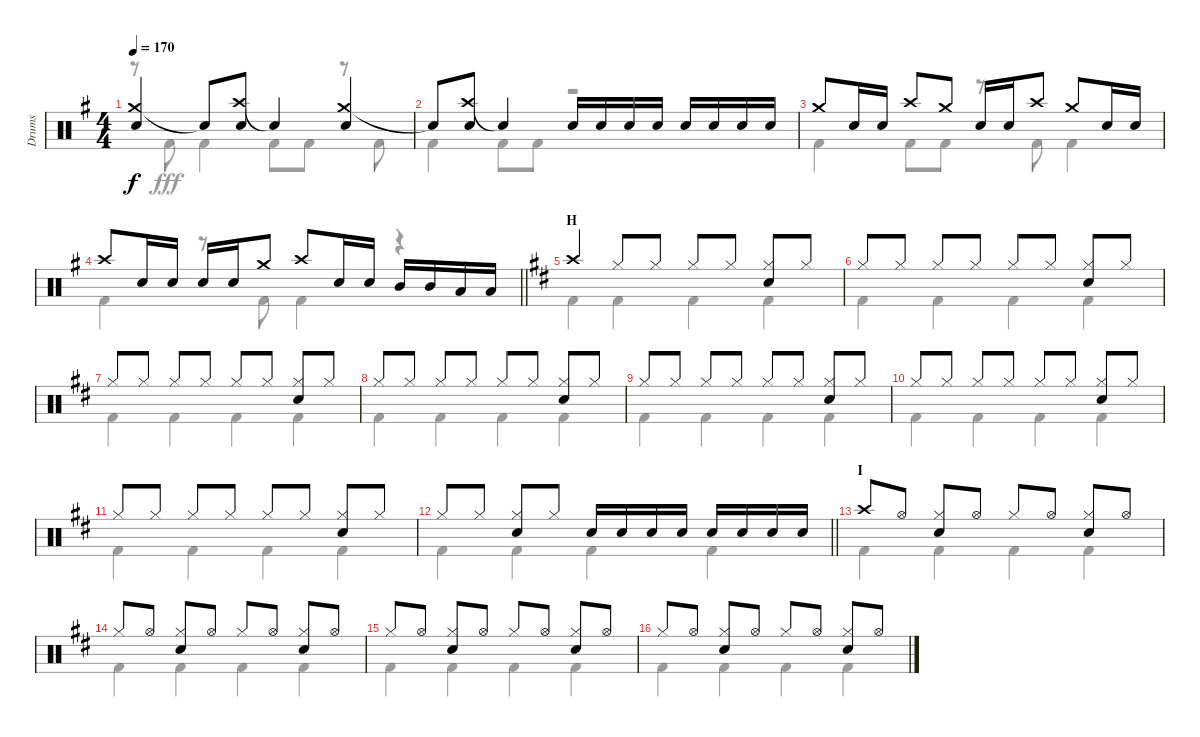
\track ("Drums" "Drums") {instrument percussion}
\staff {score}
\articulation defaults
\voice
\ts (4 4)
\tempo 170
\clef neutral
\ks g
("Crash medium (hit)" "Snare (hit) 2").4{dy f} "Snare (hit)"{t}.8 ("Crash high (hit)" "Snare (hit) 2").8 "Snare (hit)"{t}.4 ("Crash medium (hit)" "Snare (hit) 2").4 |
"Snare (hit)"{t}.8 ("Crash high (hit)" "Snare (hit) 2").8 "Snare (hit)"{t}.4 "Snare (hit) 2".16 "Snare (hit) 2".16 "Snare (hit) 2".16 "Snare (hit) 2".16 "Snare (hit) 2".16 "Snare (hit) 2".16 "Snare (hit) 2".16 "Snare (hit) 2".16 |
"Crash medium (hit)".8 "Snare (hit) 2".16 "Snare (hit) 2".16 "Crash high (hit)".8 "Crash medium (hit)".8 "Snare (hit) 2".16 "Snare (hit) 2".16 "Crash high (hit)".8 "Crash medium (hit)".8 "Snare (hit) 2".16 "Snare (hit) 2".16 |
\barLineRight lightlight "Crash high (hit)".8 "Snare (hit) 2".16 "Snare (hit) 2".16 "Snare (hit) 2".16 "Snare (hit) 2".16 "Crash medium (hit)".8 "Crash high (hit)".8 "Snare (hit) 2".16 "Snare (hit) 2".16 "Mid Tom (hit)".16 "Mid Tom (hit)".16 "Low Tom (hit)".16 "Low Tom (hit)".16
|
\section ("" "H")
\ks d "Crash high (hit)".4 "Hi-Hat (closed)".8 "Hi-Hat (closed)".8 "Hi-Hat (closed)".8 "Hi-Hat (closed)".8
("Hi-Hat (closed)" "Snare (hit) 2").8 "Hi-Hat (closed)".8 |
"Hi-Hat (closed)".8 "Hi-Hat (closed)".8 "Hi-Hat (closed)".8 "Hi-Hat (closed)".8 "Hi-Hat (closed)".8 "Hi-Hat (closed)".8 ("Hi-Hat (closed)" "Snare (hit) 2").8 "Hi-Hat (closed)".8 |
"Hi-Hat (closed)".8 "Hi-Hat (closed)".8 "Hi-Hat (closed)".8 "Hi-Hat (closed)".8 "Hi-Hat (closed)".8 "Hi-Hat (closed)".8 ("Hi-Hat (closed)" "Snare (hit) 2").8 "Hi-Hat (closed)".8 |
"Hi-Hat (closed)".8 "Hi-Hat (closed)".8 "Hi-Hat (closed)".8 "Hi-Hat (closed)".8 "Hi-Hat (closed)".8 "Hi-Hat (closed)".8 ("Hi-Hat (closed)" "Snare (hit) 2").8 "Hi-Hat (closed)".8 |
"Hi-Hat (closed)".8 "Hi-Hat (closed)".8 "Hi-Hat (closed)".8 "Hi-Hat (closed)".8 "Hi-Hat (closed)".8 "Hi-Hat (closed)".8 ("Hi-Hat (closed)" "Snare (hit) 2").8 "Hi-Hat (closed)".8 |
"Hi-Hat (closed)".8 "Hi-Hat (closed)".8 "Hi-Hat (closed)".8 "Hi-Hat (closed)".8 "Hi-Hat (closed)".8 "Hi-Hat (closed)".8 ("Hi-Hat (closed)" "Snare (hit) 2").8 "Hi-Hat (closed)".8 |
"Hi-Hat (closed)".8 "Hi-Hat (closed)".8 "Hi-Hat (closed)".8 "Hi-Hat (closed)".8 "Hi-Hat (closed)".8 "Hi-Hat (closed)".8 ("Hi-Hat (closed)" "Snare (hit) 2").8 "Hi-Hat (closed)".8 |
\barLineRight lightlight "Hi-Hat (closed)".8 "Hi-Hat (closed)".8
("Hi-Hat (closed)" "Snare (hit) 2").8 "Hi-Hat (closed)".8 "Snare (hit) 2".16 "Snare (hit) 2".16 "Snare (hit) 2".16 "Snare (hit) 2".16 "Snare (hit) 2".16 "Snare (hit) 2".16 "Snare (hit) 2".16 "Snare (hit) 2".16 |
\section ("" "I")
"Crash high (hit)".8 "Hi-Hat (open)".8 ("Hi-Hat (closed)" "Snare (hit) 2").8 "Hi-Hat (open)".8 "Hi-Hat (closed)".8 "Hi-Hat (open)".8 ("Hi-Hat (closed)" "Snare (hit) 2").8 "Hi-Hat (open)".8 |
"Hi-Hat (closed)".8 "Hi-Hat (open)".8 ("Hi-Hat (closed)" "Snare (hit) 2").8 "Hi-Hat (open)".8 "Hi-Hat (closed)".8 "Hi-Hat (open)".8 ("Hi-Hat (closed)" "Snare (hit) 2").8 "Hi-Hat (open)".8 |
"Hi-Hat (closed)".8 "Hi-Hat (open)".8 ("Hi-Hat (closed)" "Snare (hit) 2").8 "Hi-Hat (open)".8 "Hi-Hat (closed)".8 "Hi-Hat (open)".8 ("Hi-Hat (closed)" "Snare (hit) 2").8 "Hi-Hat (open)".8 |
"Hi-Hat (closed)".8 "Hi-Hat (open)".8 ("Hi-Hat (closed)" "Snare (hit) 2").8 "Hi-Hat (open)".8 "Hi-Hat (closed)".8 "Hi-Hat (open)".8 ("Hi-Hat (closed)" "Snare (hit) 2").8 "Hi-Hat (open)".8
\voice
\clef neutral
\ottava regular
\simile none
\ks g
r.8{dy fff} "Kick (hit) 2".8 "Kick (hit) 2".4 "Kick (hit) 2".8 "Kick (hit) 2".8 r.8 "Kick (hit) 2".8 |
"Kick (hit) 2".4 "Kick (hit) 2".8 "Kick (hit) 2".8 r.2 |
"Kick (hit) 2".4 "Kick (hit) 2".8 "Kick (hit) 2".8 r.8 "Kick (hit) 2".8 "Kick (hit) 2".4 |
\barLineRight lightlight "Kick (hit) 2".4
r.8 "Kick (hit) 2".8 "Kick (hit) 2".4 r.4 |
\ks d "Kick (hit) 2".4 "Kick (hit) 2".4 "Kick (hit) 2".4 "Kick (hit) 2".4
|
"Kick (hit) 2".4 "Kick (hit) 2".4 "Kick (hit) 2".4 "Kick (hit) 2".4 |
"Kick (hit) 2".4 "Kick (hit) 2".4 "Kick (hit) 2".4 "Kick (hit) 2".4 |
"Kick (hit) 2".4 "Kick (hit) 2".4 "Kick (hit) 2".4 "Kick (hit) 2".4 |
"Kick (hit) 2".4 "Kick (hit) 2".4 "Kick (hit) 2".4 "Kick (hit) 2".4 |
"Kick (hit) 2".4 "Kick (hit) 2".4 "Kick (hit) 2".4 "Kick (hit) 2".4 |
"Kick (hit) 2".4 "Kick (hit) 2".4 "Kick (hit) 2".4 "Kick (hit) 2".4 |
\barLineRight lightlight "Kick (hit) 2".4 "Kick (hit) 2".4 "Kick (hit) 2".4 "Kick (hit) 2".4
|
"Kick (hit) 2".4 "Kick (hit) 2".4 "Kick (hit) 2".4 "Kick (hit) 2".4 |
"Kick (hit) 2".4 "Kick (hit) 2".4 "Kick (hit) 2".4 "Kick (hit) 2".4 |
"Kick (hit) 2".4 "Kick (hit) 2".4 "Kick (hit) 2".4 "Kick (hit) 2".4 |
"Kick (hit) 2".4 "Kick (hit) 2".4 "Kick (hit) 2".4 "Kick (hit) 2".4
